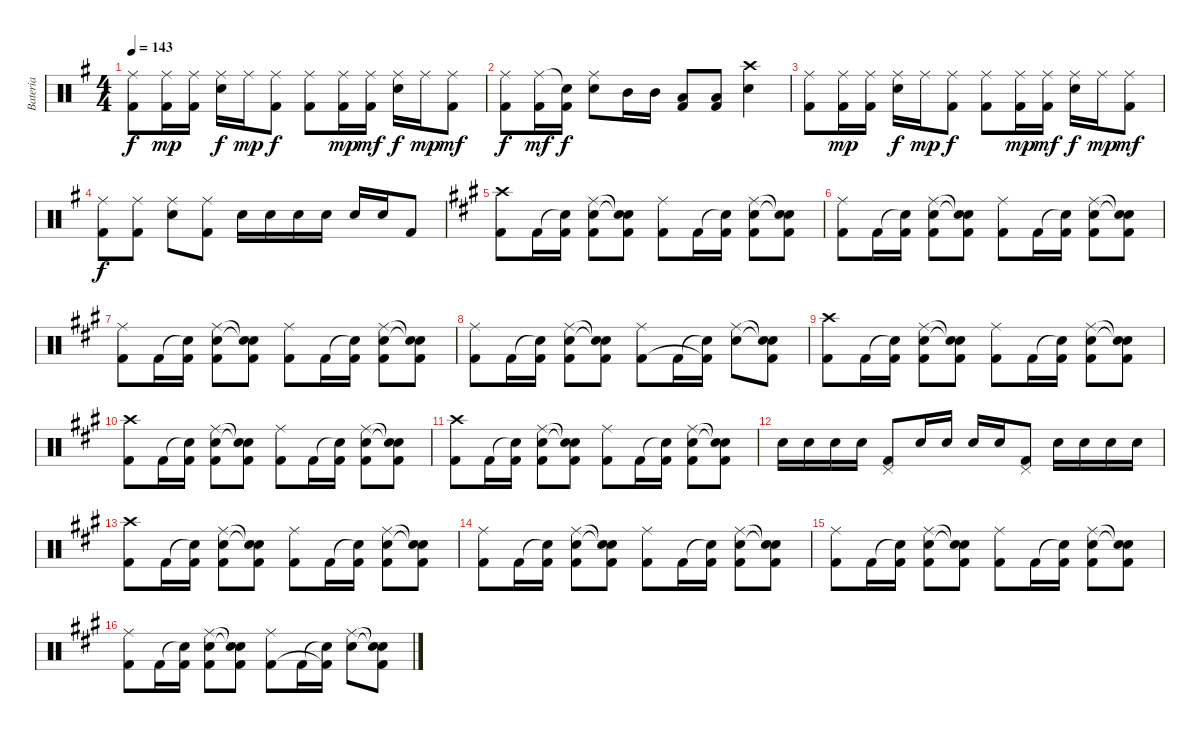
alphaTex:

\track ("Bateria" "Bateria") {instrument percussion}
\staff {score}
\articulation defaults
\ts (4 4)
\tempo 143
\clef neutral
\ks g
("Ride (middle)" "Kick (hit) 2").8{dy f} ("Ride (middle)" "Kick (hit) 2").16{dy mp} ("Ride (middle)" "Kick (hit) 2").16 ("Ride (middle)" "Electric Snare (hit)").16{dy f} "Ride (middle)".16{dy mp} ("Ride (middle)" "Kick (hit) 2").8{dy f} ("Ride (middle)" "Kick (hit) 2").8 ("Ride (middle)" "Kick (hit) 2").16{dy mp} ("Ride (middle)" "Kick (hit) 2").16{dy mf} ("Ride (middle)" "Electric Snare (hit)").16{dy f} "Ride (middle)".16{dy mp} ("Ride (middle)" "Kick (hit) 2").8{dy mf} |
("Ride (middle)" "Kick (hit) 2").8{dy f} ("Ride (middle)" "Kick (hit) 2").16{dy mf} ("Snare (hit)"{t} "Kick (hit) 2").16{dy f} ("Ride (middle)" "Electric Snare (hit)").8 "Mid Tom (hit)".16 "Mid Tom (hit)".16 ("Low Tom (hit)" "Kick (hit) 2").8 ("Low Tom (hit)" "Kick (hit) 2").8 ("Crash high (hit)" "Electric Snare (hit)").4 |
("Ride (middle)" "Kick (hit) 2").8 ("Ride (middle)" "Kick (hit) 2").16{dy mp} ("Ride (middle)" "Kick (hit) 2").16 ("Ride (middle)" "Electric Snare (hit)").16{dy f} "Ride (middle)".16{dy mp} ("Ride (middle)" "Kick (hit) 2").8{dy f} ("Ride (middle)" "Kick (hit) 2").8 ("Ride (middle)" "Kick (hit) 2").16{dy mp} ("Ride (middle)" "Kick (hit) 2").16{dy mf} ("Ride (middle)" "Electric Snare (hit)").16{dy f} "Ride (middle)".16{dy mp} ("Ride (middle)" "Kick (hit) 2").8{dy mf} |
("Ride (middle)" "Kick (hit) 2").8{dy f} ("Ride (middle)" "Kick (hit) 2").8 ("Ride (middle)" "Electric Snare (hit)").8 ("Ride (middle)" "Kick (hit) 2").8 "Electric Snare (hit)".16 "Electric Snare (hit)".16 "Electric Snare (hit)".16 "Electric Snare (hit)".16 "Electric Snare (hit)".16 "Electric Snare (hit)".16 "Kick (hit) 2".8 |
\ks a
("Crash high (hit)" "Kick (hit) 2").8 "Kick (hit) 2".16 ("Snare (hit)"{t} "Kick (hit) 2").16 ("Ride (middle)" "Electric Snare (hit)" "Kick (hit) 2").8 ("Snare (hit)"{t} "Snare (hit)"{t} "Kick (hit) 2").8 ("Ride (middle)" "Kick (hit) 2").8 "Kick (hit) 2".16 ("Snare (hit)"{t} "Kick (hit) 2").16 ("Ride (middle)" "Electric Snare (hit)" "Kick (hit) 2").8 ("Snare (hit)"{t} "Snare (hit)"{t} "Kick (hit) 2").8 |
("Ride (middle)" "Kick (hit) 2").8 "Kick (hit) 2".16 ("Snare (hit)"{t} "Kick (hit) 2").16 ("Ride (middle)" "Electric Snare (hit)" "Kick (hit) 2").8 ("Snare (hit)"{t} "Snare (hit)"{t} "Kick (hit) 2").8 ("Ride (middle)" "Kick (hit) 2").8 "Kick (hit) 2".16 ("Snare (hit)"{t} "Kick (hit) 2").16 ("Ride (middle)" "Electric Snare (hit)" "Kick (hit) 2").8 ("Snare (hit)"{t} "Snare (hit)"{t} "Kick (hit) 2").8 |
("Ride (middle)" "Kick (hit) 2").8 "Kick (hit) 2".16 ("Snare (hit)"{t} "Kick (hit) 2").16 ("Ride (middle)" "Electric Snare (hit)" "Kick (hit) 2").8 ("Snare (hit)"{t} "Snare (hit)"{t} "Kick (hit) 2").8 ("Ride (middle)" "Kick (hit) 2").8 "Kick (hit) 2".16 ("Snare (hit)"{t} "Kick (hit) 2").16 ("Ride (middle)" "Electric Snare (hit)" "Kick (hit) 2").8 ("Snare (hit)"{t} "Snare (hit)"{t} "Kick (hit) 2").8 |
("Ride (middle)" "Kick (hit) 2").8 "Kick (hit) 2".16 ("Snare (hit)"{t} "Kick (hit) 2").16 ("Ride (middle)" "Electric Snare (hit)" "Kick (hit) 2").8 ("Snare (hit)"{t} "Snare (hit)"{t} "Kick (hit) 2").8 ("Ride (middle)" "Kick (hit) 2").8 "Kick (hit) 2".16 ("Snare (hit)"{t} "Kick (hit) 2"{t}).16 ("Ride (middle)" "Electric Snare (hit)").8 ("Snare (hit)"{t} "Snare (hit)"{t} "Kick (hit) 2").8 |
("Crash high (hit)" "Kick (hit) 2").8 "Kick (hit) 2".16 ("Snare (hit)"{t} "Kick (hit) 2").16 ("Ride (middle)" "Electric Snare (hit)" "Kick (hit) 2").8 ("Snare (hit)"{t} "Snare (hit)"{t} "Kick (hit) 2").8 ("Ride (middle)" "Kick (hit) 2").8 "Kick (hit) 2".16 ("Snare (hit)"{t} "Kick (hit) 2").16 ("Ride (middle)" "Electric Snare (hit)" "Kick (hit) 2").8 ("Snare (hit)"{t} "Snare (hit)"{t} "Kick (hit) 2").8 |
("Crash high (hit)" "Kick (hit) 2").8 "Kick (hit) 2".16 ("Snare (hit)"{t} "Kick (hit) 2").16 ("Ride (middle)" "Electric Snare (hit)" "Kick (hit) 2").8 ("Snare (hit)"{t} "Snare (hit)"{t} "Kick (hit) 2").8 ("Ride (middle)" "Kick (hit) 2").8 "Kick (hit) 2".16 ("Snare (hit)"{t} "Kick (hit) 2").16 ("Ride (middle)" "Electric Snare (hit)" "Kick (hit) 2").8 ("Snare (hit)"{t} "Snare (hit)"{t} "Kick (hit) 2").8 |
("Crash high (hit)" "Kick (hit) 2").8 "Kick (hit) 2".16 ("Snare (hit)"{t} "Kick (hit) 2").16 ("Ride (middle)" "Electric Snare (hit)" "Kick (hit) 2").8 ("Snare (hit)"{t} "Snare (hit)"{t} "Kick (hit) 2").8 ("Ride (middle)" "Kick (hit) 2").8 "Kick (hit) 2".16 ("Snare (hit)"{t} "Kick (hit) 2").16 ("Ride (middle)" "Electric Snare (hit)" "Kick (hit) 2").8 ("Snare (hit)"{t} "Snare (hit)"{t} "Kick (hit) 2").8 |
"Electric Snare (hit)".16 "Electric Snare (hit)".16 "Electric Snare (hit)".16 "Electric Snare (hit)".16 ("Pedal Hi-Hat (hit)" "Kick (hit) 2").8 "Electric Snare (hit)".16 "Electric Snare (hit)".16 "Electric Snare (hit)".16 "Electric Snare (hit)".16 ("Pedal Hi-Hat (hit)" "Kick (hit) 2").8 "Electric Snare (hit)".16 "Electric Snare (hit)".16 "Electric Snare (hit)".16 "Electric Snare (hit)".16 |
("Crash high (hit)" "Kick (hit) 2").8 "Kick (hit) 2".16 ("Snare (hit)"{t} "Kick (hit) 2").16 ("Ride (middle)" "Electric Snare (hit)" "Kick (hit) 2").8 ("Snare (hit)"{t} "Snare (hit)"{t} "Kick (hit) 2").8 ("Ride (middle)" "Kick (hit) 2").8 "Kick (hit) 2".16 ("Snare (hit)"{t} "Kick (hit) 2").16 ("Ride (middle)" "Electric Snare (hit)" "Kick (hit) 2").8 ("Snare (hit)"{t} "Snare (hit)"{t} "Kick (hit) 2").8 |
("Ride (middle)" "Kick (hit) 2").8 "Kick (hit) 2".16 ("Snare (hit)"{t} "Kick (hit) 2").16 ("Ride (middle)" "Electric Snare (hit)" "Kick (hit) 2").8 ("Snare (hit)"{t} "Snare (hit)"{t} "Kick (hit) 2").8 ("Ride (middle)" "Kick (hit) 2").8 "Kick (hit) 2".16 ("Snare (hit)"{t} "Kick (hit) 2").16 ("Ride (middle)" "Electric Snare (hit)" "Kick (hit) 2").8 ("Snare (hit)"{t} "Snare (hit)"{t} "Kick (hit) 2").8 |
("Ride (middle)" "Kick (hit) 2").8 "Kick (hit) 2".16 ("Snare (hit)"{t} "Kick (hit) 2").16 ("Ride (middle)" "Electric Snare (hit)" "Kick (hit) 2").8 ("Snare (hit)"{t} "Snare (hit)"{t} "Kick (hit) 2").8 ("Ride (middle)" "Kick (hit) 2").8 "Kick (hit) 2".16 ("Snare (hit)"{t} "Kick (hit) 2").16 ("Ride (middle)" "Electric Snare (hit)" "Kick (hit) 2").8 ("Snare (hit)"{t} "Snare (hit)"{t} "Kick (hit) 2").8 |
("Ride (middle)" "Kick (hit) 2").8 "Kick (hit) 2".16 ("Snare (hit)"{t} "Kick (hit) 2").16 ("Ride (middle)" "Electric Snare (hit)" "Kick (hit) 2").8 ("Snare (hit)"{t} "Snare (hit)"{t} "Kick (hit) 2").8 ("Ride (middle)" "Kick (hit) 2").8 "Kick (hit) 2".16 ("Snare (hit)"{t} "Kick (hit) 2"{t}).16 ("Ride (middle)" "Electric Snare (hit)").8 ("Snare (hit)"{t} "Snare (hit)"{t} "Kick (hit) 2").8
